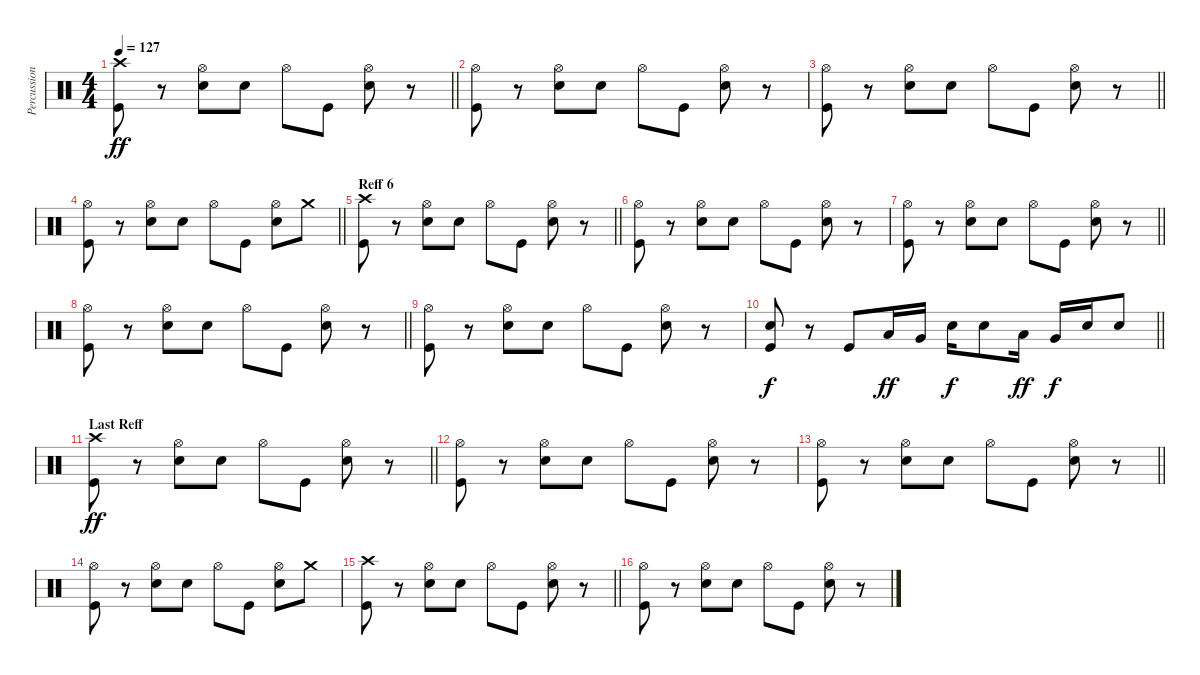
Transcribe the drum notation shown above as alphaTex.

\track ("Percussion" "Percussion") {instrument percussion}
\staff {score}
\articulation defaults
\ts (4 4)
\tempo 127
\clef neutral
\barLineRight lightlight
\ks c
("Crash high (hit)" "Kick (hit)").8{dy ff} r.8 ("Hi-Hat (open)" "Electric Snare (hit)").8 "Electric Snare (hit)".8 "Hi-Hat (open)".8 "Kick (hit)".8 ("Hi-Hat (open)" "Electric Snare (hit)").8 r.8 |
("Hi-Hat (open)" "Kick (hit)").8 r.8 ("Hi-Hat (open)" "Electric Snare (hit)").8 "Electric Snare (hit)".8 "Hi-Hat (open)".8 "Kick (hit)".8 ("Hi-Hat (open)" "Electric Snare (hit)").8 r.8 |
\barLineRight lightlight
("Hi-Hat (open)" "Kick (hit)").8 r.8 ("Hi-Hat (open)" "Electric Snare (hit)").8 "Electric Snare (hit)".8 "Hi-Hat (open)".8 "Kick (hit)".8 ("Hi-Hat (open)" "Electric Snare (hit)").8 r.8 |
\barLineRight lightlight
("Hi-Hat (open)" "Kick (hit)").8 r.8 ("Hi-Hat (open)" "Electric Snare (hit)").8 "Electric Snare (hit)".8 "Hi-Hat (open)".8 "Kick (hit)".8 ("Hi-Hat (open)" "Electric Snare (hit)").8 "Crash medium (hit)".8 |
\section ("" "Reff 6")
\barLineRight lightlight
("Crash high (hit)" "Kick (hit)").8 r.8 ("Hi-Hat (open)" "Electric Snare (hit)").8 "Electric Snare (hit)".8 "Hi-Hat (open)".8 "Kick (hit)".8 ("Hi-Hat (open)" "Electric Snare (hit)").8 r.8 |
("Hi-Hat (open)" "Kick (hit)").8 r.8 ("Hi-Hat (open)" "Electric Snare (hit)").8 "Electric Snare (hit)".8 "Hi-Hat (open)".8 "Kick (hit)".8 ("Hi-Hat (open)" "Electric Snare (hit)").8 r.8 |
\barLineRight lightlight
("Hi-Hat (open)" "Kick (hit)").8 r.8 ("Hi-Hat (open)" "Electric Snare (hit)").8 "Electric Snare (hit)".8 "Hi-Hat (open)".8 "Kick (hit)".8 ("Hi-Hat (open)" "Electric Snare (hit)").8 r.8 |
\barLineRight lightlight
("Hi-Hat (open)" "Kick (hit)").8 r.8 ("Hi-Hat (open)" "Electric Snare (hit)").8 "Electric Snare (hit)".8 "Hi-Hat (open)".8 "Kick (hit)".8 ("Hi-Hat (open)" "Electric Snare (hit)").8 r.8 |
("Hi-Hat (open)" "Kick (hit)").8 r.8 ("Hi-Hat (open)" "Electric Snare (hit)").8 "Electric Snare (hit)".8 "Hi-Hat (open)".8 "Kick (hit)".8 ("Hi-Hat (open)" "Electric Snare (hit)").8 r.8 |
\barLineRight lightlight
("Electric Snare (hit)" "Kick (hit)").8{dy f} r.8 "Kick (hit)".8 "Low Tom (hit)".16{dy ff} "Very Low Tom (hit)".16 "Electric Snare (hit)".16{dy f} "Electric Snare (hit)".8 "Low Tom (hit)".16{dy ff} "Very Low Tom (hit)".16{dy f} "Electric Snare (hit)".16 "Electric Snare (hit)".8 |
\section ("" "Last Reff")
\barLineRight lightlight
("Crash high (hit)" "Kick (hit)").8{dy ff} r.8 ("Hi-Hat (open)" "Electric Snare (hit)").8 "Electric Snare (hit)".8 "Hi-Hat (open)".8 "Kick (hit)".8 ("Hi-Hat (open)" "Electric Snare (hit)").8 r.8 |
("Hi-Hat (open)" "Kick (hit)").8 r.8 ("Hi-Hat (open)" "Electric Snare (hit)").8 "Electric Snare (hit)".8 "Hi-Hat (open)".8 "Kick (hit)".8 ("Hi-Hat (open)" "Electric Snare (hit)").8 r.8 |
\barLineRight lightlight
("Hi-Hat (open)" "Kick (hit)").8 r.8 ("Hi-Hat (open)" "Electric Snare (hit)").8 "Electric Snare (hit)".8 "Hi-Hat (open)".8 "Kick (hit)".8 ("Hi-Hat (open)" "Electric Snare (hit)").8 r.8 |
("Hi-Hat (open)" "Kick (hit)").8 r.8 ("Hi-Hat (open)" "Electric Snare (hit)").8 "Electric Snare (hit)".8 "Hi-Hat (open)".8 "Kick (hit)".8 ("Hi-Hat (open)" "Electric Snare (hit)").8 "Crash medium (hit)".8 |
\barLineRight lightlight
("Crash high (hit)" "Kick (hit)").8 r.8 ("Hi-Hat (open)" "Electric Snare (hit)").8 "Electric Snare (hit)".8 "Hi-Hat (open)".8 "Kick (hit)".8 ("Hi-Hat (open)" "Electric Snare (hit)").8 r.8 |
("Hi-Hat (open)" "Kick (hit)").8 r.8 ("Hi-Hat (open)" "Electric Snare (hit)").8 "Electric Snare (hit)".8 "Hi-Hat (open)".8 "Kick (hit)".8 ("Hi-Hat (open)" "Electric Snare (hit)").8 r.8
